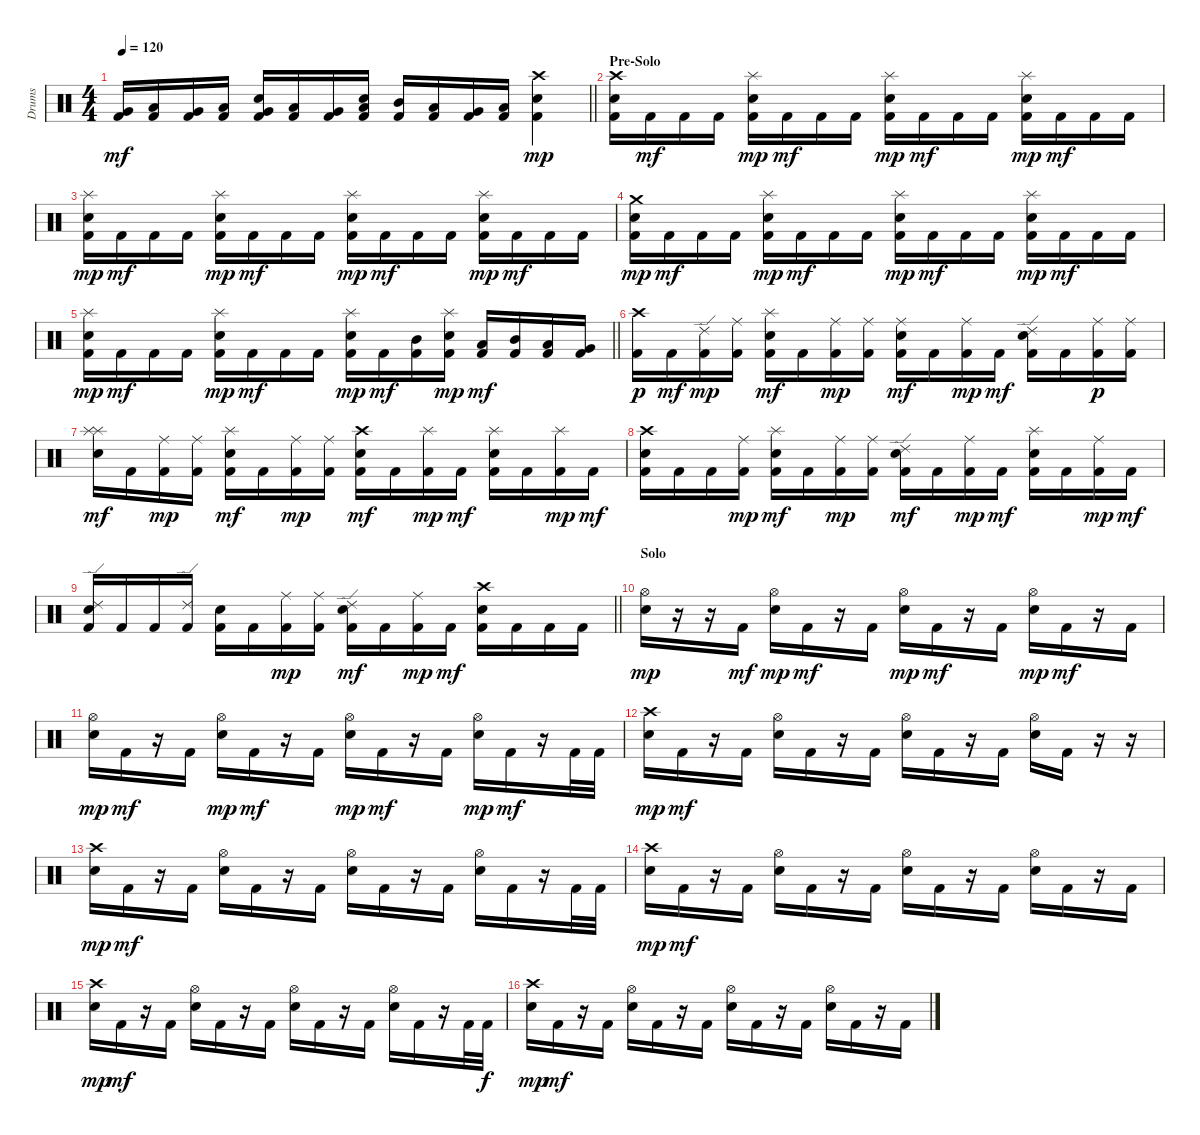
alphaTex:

\track ("Drums" "Drums") {instrument percussion}
\staff {score}
\articulation defaults
\ts (4 4)
\tempo 120
\clef neutral
\barLineRight lightlight
\ks c
("Kick (hit) 2" "Very Low Tom (hit)").16{dy mf} ("Kick (hit) 2" "Low Tom (hit)").16 ("Kick (hit) 2" "Very Low Tom (hit)").16 ("Kick (hit) 2" "Low Floor Tom (hit)").16 ("Kick (hit) 2" "Very Low Tom (hit)" "Snare (hit) 2").16 ("Kick (hit) 2" "Low Tom (hit)").16 ("Kick (hit) 2" "Very Low Tom (hit)").16 ("Kick (hit) 2" "Low Tom (hit)" "Snare (hit) 2").16 ("Kick (hit) 2" "Mid Tom (hit)").16 ("Kick (hit) 2" "Low Tom (hit)").16 ("Kick (hit) 2" "Very Low Tom (hit)").16 ("Kick (hit) 2" "Low Floor Tom (hit)").16 ("Kick (hit) 2" "Crash high (hit)" "Snare (hit) 2").4{dy mp} |
\section ("" "Pre-Solo")
("Kick (hit) 2" "Crash high (hit)" "Snare (hit) 2").16 "Kick (hit) 2".16{dy mf} "Kick (hit) 2".16 "Kick (hit) 2".16 ("Kick (hit) 2" "Splash (hit)" "Snare (hit) 2").16{dy mp} "Kick (hit) 2".16{dy mf} "Kick (hit) 2".16 "Kick (hit) 2".16 ("Kick (hit) 2" "Splash (hit)" "Snare (hit) 2").16{dy mp} "Kick (hit) 2".16{dy mf} "Kick (hit) 2".16 "Kick (hit) 2".16 ("Kick (hit) 2" "Splash (hit)" "Snare (hit) 2").16{dy mp} "Kick (hit) 2".16{dy mf} "Kick (hit) 2".16 "Kick (hit) 2".16 |
("Kick (hit) 2" "Splash (hit)" "Snare (hit) 2").16{dy mp} "Kick (hit) 2".16{dy mf} "Kick (hit) 2".16 "Kick (hit) 2".16 ("Kick (hit) 2" "Splash (hit)" "Snare (hit) 2").16{dy mp} "Kick (hit) 2".16{dy mf} "Kick (hit) 2".16 "Kick (hit) 2".16 ("Kick (hit) 2" "Splash (hit)" "Snare (hit) 2").16{dy mp} "Kick (hit) 2".16{dy mf} "Kick (hit) 2".16 "Kick (hit) 2".16 ("Kick (hit) 2" "Splash (hit)" "Snare (hit) 2").16{dy mp} "Kick (hit) 2".16{dy mf} "Kick (hit) 2".16 "Kick (hit) 2".16 |
("Kick (hit) 2" "Crash medium (hit)" "Snare (hit) 2").16{dy mp} "Kick (hit) 2".16{dy mf} "Kick (hit) 2".16 "Kick (hit) 2".16 ("Kick (hit) 2" "Splash (hit)" "Snare (hit) 2").16{dy mp} "Kick (hit) 2".16{dy mf} "Kick (hit) 2".16 "Kick (hit) 2".16 ("Kick (hit) 2" "Splash (hit)" "Snare (hit) 2").16{dy mp} "Kick (hit) 2".16{dy mf} "Kick (hit) 2".16 "Kick (hit) 2".16 ("Kick (hit) 2" "Splash (hit)" "Snare (hit) 2").16{dy mp} "Kick (hit) 2".16{dy mf} "Kick (hit) 2".16 "Kick (hit) 2".16 |
\barLineRight lightlight
("Kick (hit) 2" "Splash (hit)" "Snare (hit) 2").16{dy mp} "Kick (hit) 2".16{dy mf} "Kick (hit) 2".16 "Kick (hit) 2".16 ("Kick (hit) 2" "Splash (hit)" "Snare (hit) 2").16{dy mp} "Kick (hit) 2".16{dy mf} "Kick (hit) 2".16 "Kick (hit) 2".16 ("Kick (hit) 2" "Splash (hit)" "Snare (hit) 2").16{dy mp} "Kick (hit) 2".16{dy mf} ("Kick (hit) 2" "Mid Tom (hit)").16 ("Kick (hit) 2" "Splash (hit)" "Snare (hit) 2").16{dy mp} ("Kick (hit) 2" "Low Tom (hit)").16{dy mf} ("Kick (hit) 2" "Mid Tom (hit)").16 ("Kick (hit) 2" "Low Tom (hit)").16 ("Kick (hit) 2" "Very Low Tom (hit)").16 |
("Kick (hit) 2" "Crash high (hit)").16{dy p} "Kick (hit) 2".16{dy mf} ("Kick (hit) 2" "Ride (edge) 2").16{dy mp} ("Kick (hit) 2" "Ride (middle)").16 ("Kick (hit) 2" "Splash (hit)" "Snare (hit) 2").16{dy mf} "Kick (hit) 2".16 ("Kick (hit) 2" "Ride (middle)").16{dy mp} ("Kick (hit) 2" "Ride (middle)").16 ("Kick (hit) 2" "Ride (middle)" "Snare (hit) 2").16{dy mf} "Kick (hit) 2".16 ("Kick (hit) 2" "Ride (middle)").16{dy mp} "Kick (hit) 2".16{dy mf} ("Kick (hit) 2" "Ride (edge) 2" "Snare (hit) 2").16 "Kick (hit) 2".16 ("Kick (hit) 2" "Ride (middle)").16{dy p} ("Kick (hit) 2" "Ride (middle)").16 |
("Splash (hit)" "Splash (hit)" "Snare (hit) 2").16{dy mf} "Kick (hit) 2".16 ("Kick (hit) 2" "Ride (middle)").16{dy mp} ("Kick (hit) 2" "Ride (middle)").16 ("Kick (hit) 2" "Splash (hit)" "Snare (hit) 2").16{dy mf} "Kick (hit) 2".16 ("Kick (hit) 2" "Ride (middle)").16{dy mp} ("Kick (hit) 2" "Ride (middle)").16 ("Kick (hit) 2" "Crash high (hit)" "Snare (hit) 2").16{dy mf} "Kick (hit) 2".16 ("Kick (hit) 2" "Splash (hit)").16{dy mp} "Kick (hit) 2".16{dy mf} ("Kick (hit) 2" "Splash (hit)" "Snare (hit) 2").16 "Kick (hit) 2".16 ("Kick (hit) 2" "Splash (hit)").16{dy mp} "Kick (hit) 2".16{dy mf} |
("Kick (hit) 2" "Crash high (hit)" "Snare (hit) 2").16 "Kick (hit) 2".16 "Kick (hit) 2".16 ("Kick (hit) 2" "Ride (middle)").16{dy mp} ("Kick (hit) 2" "Splash (hit)" "Snare (hit) 2").16{dy mf} "Kick (hit) 2".16 ("Kick (hit) 2" "Ride (middle)").16{dy mp} ("Kick (hit) 2" "Ride (middle)").16 ("Kick (hit) 2" "Ride (edge) 2" "Snare (hit) 2").16{dy mf} "Kick (hit) 2".16 ("Kick (hit) 2" "Ride (middle)").16{dy mp} "Kick (hit) 2".16{dy mf} ("Kick (hit) 2" "Splash (hit)" "Snare (hit) 2").16 "Kick (hit) 2".16 ("Kick (hit) 2" "Ride (middle)").16{dy mp} "Kick (hit) 2".16{dy mf} |
\barLineRight lightlight
("Kick (hit) 2" "Ride (edge) 2" "Snare (hit) 2").16 "Kick (hit) 2".16 "Kick (hit) 2".16 ("Kick (hit) 2" "Ride (edge) 2").16 ("Kick (hit) 2" "Snare (hit) 2").16 "Kick (hit) 2".16 ("Kick (hit) 2" "Ride (middle)").16{dy mp} ("Kick (hit) 2" "Ride (middle)").16 ("Kick (hit) 2" "Ride (edge) 2" "Snare (hit) 2").16{dy mf} "Kick (hit) 2".16 ("Kick (hit) 2" "Ride (middle)").16{dy mp} "Kick (hit) 2".16{dy mf} ("Kick (hit) 2" "Crash high (hit)" "Snare (hit) 2").16 "Kick (hit) 2".16 "Kick (hit) 2".16 "Kick (hit) 2".16 |
\section ("" "Solo")
("Hi-Hat (open)" "Snare (hit) 2").16{dy mp} r.16 r.16 "Kick (hit) 2".16{dy mf} ("Hi-Hat (open)" "Snare (hit) 2").16{dy mp} "Kick (hit) 2".16{dy mf} r.16 "Kick (hit) 2".16 ("Hi-Hat (open)" "Snare (hit) 2").16{dy mp} "Kick (hit) 2".16{dy mf} r.16 "Kick (hit) 2".16 ("Hi-Hat (open)" "Snare (hit) 2").16{dy mp} "Kick (hit) 2".16{dy mf} r.16 "Kick (hit) 2".16 |
("Hi-Hat (open)" "Snare (hit) 2").16{dy mp} "Kick (hit) 2".16{dy mf} r.16 "Kick (hit) 2".16 ("Hi-Hat (open)" "Snare (hit) 2").16{dy mp} "Kick (hit) 2".16{dy mf} r.16 "Kick (hit) 2".16 ("Hi-Hat (open)" "Snare (hit) 2").16{dy mp} "Kick (hit) 2".16{dy mf} r.16 "Kick (hit) 2".16 ("Hi-Hat (open)" "Snare (hit) 2").16{dy mp} "Kick (hit) 2".16{dy mf} r.16 "Kick (hit) 2".32 "Kick (hit) 2".32 |
("Crash high (hit)" "Snare (hit) 2").16{dy mp} "Kick (hit) 2".16{dy mf} r.16 "Kick (hit) 2".16 ("Hi-Hat (open)" "Snare (hit) 2").16 "Kick (hit) 2".16 r.16 "Kick (hit) 2".16 ("Hi-Hat (open)" "Snare (hit) 2").16 "Kick (hit) 2".16 r.16 "Kick (hit) 2".16 ("Hi-Hat (open)" "Snare (hit) 2").16 "Kick (hit) 2".16 r.16 r.16 |
("Crash high (hit)" "Snare (hit) 2").16{dy mp} "Kick (hit) 2".16{dy mf} r.16 "Kick (hit) 2".16 ("Hi-Hat (open)" "Snare (hit) 2").16 "Kick (hit) 2".16 r.16 "Kick (hit) 2".16 ("Hi-Hat (open)" "Snare (hit) 2").16 "Kick (hit) 2".16 r.16 "Kick (hit) 2".16 ("Hi-Hat (open)" "Snare (hit) 2").16 "Kick (hit) 2".16 r.16 "Kick (hit) 2".32 "Kick (hit) 2".32 |
("Crash high (hit)" "Snare (hit) 2").16{dy mp} "Kick (hit) 2".16{dy mf} r.16 "Kick (hit) 2".16 ("Hi-Hat (open)" "Snare (hit) 2").16 "Kick (hit) 2".16 r.16 "Kick (hit) 2".16 ("Hi-Hat (open)" "Snare (hit) 2").16 "Kick (hit) 2".16 r.16 "Kick (hit) 2".16 ("Hi-Hat (open)" "Snare (hit) 2").16 "Kick (hit) 2".16 r.16 "Kick (hit) 2".16 |
("Crash high (hit)" "Snare (hit) 2").16{dy mp} "Kick (hit) 2".16{dy mf} r.16 "Kick (hit) 2".16 ("Hi-Hat (open)" "Snare (hit) 2").16 "Kick (hit) 2".16 r.16 "Kick (hit) 2".16 ("Hi-Hat (open)" "Snare (hit) 2").16 "Kick (hit) 2".16 r.16 "Kick (hit) 2".16 ("Hi-Hat (open)" "Snare (hit) 2").16 "Kick (hit) 2".16 r.16 "Kick (hit) 2".32 "Kick (hit) 2".32{dy f} |
("Crash high (hit)" "Snare (hit) 2").16{dy mp} "Kick (hit) 2".16{dy mf} r.16 "Kick (hit) 2".16 ("Hi-Hat (open)" "Snare (hit) 2").16 "Kick (hit) 2".16 r.16 "Kick (hit) 2".16 ("Hi-Hat (open)" "Snare (hit) 2").16 "Kick (hit) 2".16 r.16 "Kick (hit) 2".16 ("Hi-Hat (open)" "Snare (hit) 2").16 "Kick (hit) 2".16 r.16 "Kick (hit) 2".16
